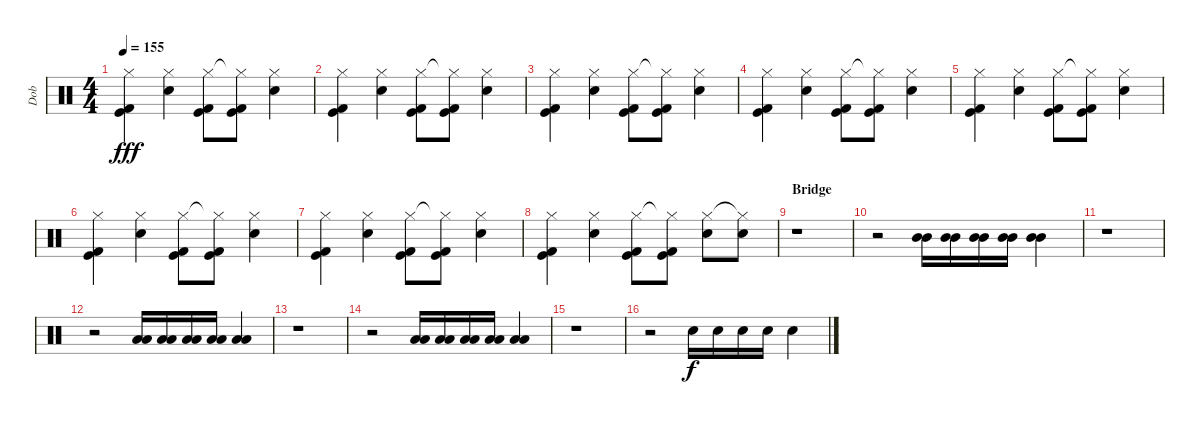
\track ("Dob" "Dob") {instrument percussion}
\staff {score}
\articulation defaults
\ts (4 4)
\tempo 155
\clef neutral
\ks c
("Hi-Hat (closed)" "Kick (hit) 2" "Kick (hit)").4{dy fff} ("Hi-Hat (closed)" "Electric Snare (hit)").4 ("Hi-Hat (closed)" "Kick (hit) 2" "Kick (hit)").8 ("Hi-Hat (closed)"{t} "Kick (hit) 2" "Kick (hit)").8 ("Hi-Hat (closed)" "Electric Snare (hit)").4 |
("Hi-Hat (closed)" "Kick (hit) 2" "Kick (hit)").4 ("Hi-Hat (closed)" "Electric Snare (hit)").4 ("Hi-Hat (closed)" "Kick (hit) 2" "Kick (hit)").8 ("Hi-Hat (closed)"{t} "Kick (hit) 2" "Kick (hit)").8 ("Hi-Hat (closed)" "Electric Snare (hit)").4 |
("Hi-Hat (closed)" "Kick (hit) 2" "Kick (hit)").4 ("Hi-Hat (closed)" "Electric Snare (hit)").4 ("Hi-Hat (closed)" "Kick (hit) 2" "Kick (hit)").8 ("Hi-Hat (closed)"{t} "Kick (hit) 2" "Kick (hit)").8 ("Hi-Hat (closed)" "Electric Snare (hit)").4 |
("Hi-Hat (closed)" "Kick (hit) 2" "Kick (hit)").4 ("Hi-Hat (closed)" "Electric Snare (hit)").4 ("Hi-Hat (closed)" "Kick (hit) 2" "Kick (hit)").8 ("Hi-Hat (closed)"{t} "Kick (hit) 2" "Kick (hit)").8 ("Hi-Hat (closed)" "Electric Snare (hit)").4 |
("Hi-Hat (closed)" "Kick (hit) 2" "Kick (hit)").4 ("Hi-Hat (closed)" "Electric Snare (hit)").4 ("Hi-Hat (closed)" "Kick (hit) 2" "Kick (hit)").8 ("Hi-Hat (closed)"{t} "Kick (hit) 2" "Kick (hit)").8 ("Hi-Hat (closed)" "Electric Snare (hit)").4 |
("Hi-Hat (closed)" "Kick (hit) 2" "Kick (hit)").4 ("Hi-Hat (closed)" "Electric Snare (hit)").4 ("Hi-Hat (closed)" "Kick (hit) 2" "Kick (hit)").8 ("Hi-Hat (closed)"{t} "Kick (hit) 2" "Kick (hit)").8 ("Hi-Hat (closed)" "Electric Snare (hit)").4 |
("Hi-Hat (closed)" "Kick (hit) 2" "Kick (hit)").4 ("Hi-Hat (closed)" "Electric Snare (hit)").4 ("Hi-Hat (closed)" "Kick (hit) 2" "Kick (hit)").8 ("Hi-Hat (closed)"{t} "Kick (hit) 2" "Kick (hit)").8 ("Hi-Hat (closed)" "Electric Snare (hit)").4 |
("Hi-Hat (closed)" "Kick (hit) 2" "Kick (hit)").4 ("Hi-Hat (closed)" "Electric Snare (hit)").4 ("Hi-Hat (closed)" "Kick (hit) 2" "Kick (hit)").8 ("Hi-Hat (closed)"{t} "Kick (hit) 2" "Kick (hit)").8 ("Hi-Hat (closed)" "Electric Snare (hit)").8 ("Hi-Hat (closed)"{t} "Electric Snare (hit)").8 |
\section ("" "Bridge")
r.1 |
r.2 ("Mid Tom (hit)" "Mid Tom (hit)").16 ("Mid Tom (hit)" "Mid Tom (hit)").16 ("Mid Tom (hit)" "Mid Tom (hit)").16 ("Mid Tom (hit)" "Mid Tom (hit)").16 ("Mid Tom (hit)" "Mid Tom (hit)").4 |
r.1 |
r.2 ("Low Floor Tom (hit)" "Low Floor Tom (hit)").16 ("Low Floor Tom (hit)" "Low Floor Tom (hit)").16 ("Low Floor Tom (hit)" "Low Floor Tom (hit)").16 ("Low Floor Tom (hit)" "Low Floor Tom (hit)").16 ("Low Floor Tom (hit)" "Low Floor Tom (hit)").4 |
r.1 |
r.2 ("Low Tom (hit)" "Low Tom (hit)").16 ("Low Tom (hit)" "Low Tom (hit)").16 ("Low Tom (hit)" "Low Tom (hit)").16 ("Low Tom (hit)" "Low Tom (hit)").16 ("Low Tom (hit)" "Low Tom (hit)").4 |
r.1 |
r.2 "Electric Snare (hit)".16{dy f} "Electric Snare (hit)".16 "Electric Snare (hit)".16 "Electric Snare (hit)".16 "Electric Snare (hit)".4
